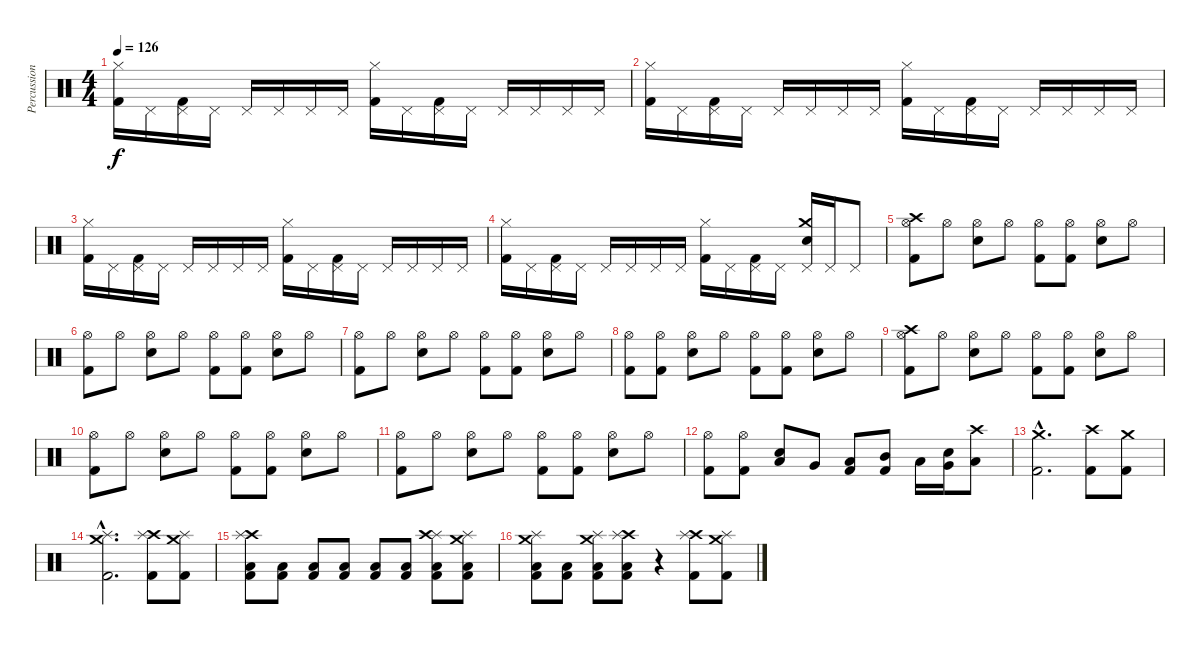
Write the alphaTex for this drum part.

\track ("Percussions" "Percussion") {instrument percussion}
\staff {score}
\articulation defaults
\ts (4 4)
\tempo 126
\clef neutral
\ks c
("Hi-Hat (closed)" "Kick (hit) 2").16{dy f} "Pedal Hi-Hat (hit)".16 ("Pedal Hi-Hat (hit)" "Kick (hit) 2").16 "Pedal Hi-Hat (hit)".16 "Pedal Hi-Hat (hit)".16 "Pedal Hi-Hat (hit)".16 "Pedal Hi-Hat (hit)".16 "Pedal Hi-Hat (hit)".16 ("Hi-Hat (closed)" "Kick (hit) 2").16 "Pedal Hi-Hat (hit)".16 ("Pedal Hi-Hat (hit)" "Kick (hit) 2").16 "Pedal Hi-Hat (hit)".16 "Pedal Hi-Hat (hit)".16 "Pedal Hi-Hat (hit)".16 "Pedal Hi-Hat (hit)".16 "Pedal Hi-Hat (hit)".16 |
("Hi-Hat (closed)" "Kick (hit) 2").16 "Pedal Hi-Hat (hit)".16 ("Pedal Hi-Hat (hit)" "Kick (hit) 2").16 "Pedal Hi-Hat (hit)".16 "Pedal Hi-Hat (hit)".16 "Pedal Hi-Hat (hit)".16 "Pedal Hi-Hat (hit)".16 "Pedal Hi-Hat (hit)".16 ("Hi-Hat (closed)" "Kick (hit) 2").16 "Pedal Hi-Hat (hit)".16 ("Pedal Hi-Hat (hit)" "Kick (hit) 2").16 "Pedal Hi-Hat (hit)".16 "Pedal Hi-Hat (hit)".16 "Pedal Hi-Hat (hit)".16 "Pedal Hi-Hat (hit)".16 "Pedal Hi-Hat (hit)".16 |
("Hi-Hat (closed)" "Kick (hit) 2").16 "Pedal Hi-Hat (hit)".16 ("Pedal Hi-Hat (hit)" "Kick (hit) 2").16 "Pedal Hi-Hat (hit)".16 "Pedal Hi-Hat (hit)".16 "Pedal Hi-Hat (hit)".16 "Pedal Hi-Hat (hit)".16 "Pedal Hi-Hat (hit)".16 ("Hi-Hat (closed)" "Kick (hit) 2").16 "Pedal Hi-Hat (hit)".16 ("Pedal Hi-Hat (hit)" "Kick (hit) 2").16 "Pedal Hi-Hat (hit)".16 "Pedal Hi-Hat (hit)".16 "Pedal Hi-Hat (hit)".16 "Pedal Hi-Hat (hit)".16 "Pedal Hi-Hat (hit)".16 |
("Hi-Hat (closed)" "Kick (hit) 2").16 "Pedal Hi-Hat (hit)".16 ("Pedal Hi-Hat (hit)" "Kick (hit) 2").16 "Pedal Hi-Hat (hit)".16 "Pedal Hi-Hat (hit)".16 "Pedal Hi-Hat (hit)".16 "Pedal Hi-Hat (hit)".16 "Pedal Hi-Hat (hit)".16 ("Hi-Hat (closed)" "Kick (hit) 2").16 "Pedal Hi-Hat (hit)".16 ("Pedal Hi-Hat (hit)" "Kick (hit) 2").16 "Pedal Hi-Hat (hit)".16 ("Pedal Hi-Hat (hit)" "Crash medium (hit)" "Electric Snare (hit)").16 "Pedal Hi-Hat (hit)".16 "Pedal Hi-Hat (hit)".8 |
("Hi-Hat (open)" "Crash high (hit)" "Kick (hit) 2").8 "Hi-Hat (open)".8 ("Hi-Hat (open)" "Electric Snare (hit)").8 "Hi-Hat (open)".8 ("Hi-Hat (open)" "Kick (hit) 2").8 ("Hi-Hat (open)" "Kick (hit) 2").8 ("Hi-Hat (open)" "Electric Snare (hit)").8 "Hi-Hat (open)".8 |
("Hi-Hat (open)" "Kick (hit) 2").8 "Hi-Hat (open)".8 ("Hi-Hat (open)" "Electric Snare (hit)").8 "Hi-Hat (open)".8 ("Hi-Hat (open)" "Kick (hit) 2").8 ("Hi-Hat (open)" "Kick (hit) 2").8 ("Hi-Hat (open)" "Electric Snare (hit)").8 "Hi-Hat (open)".8 |
("Hi-Hat (open)" "Kick (hit) 2").8 "Hi-Hat (open)".8 ("Hi-Hat (open)" "Electric Snare (hit)").8 "Hi-Hat (open)".8 ("Hi-Hat (open)" "Kick (hit) 2").8 ("Hi-Hat (open)" "Kick (hit) 2").8 ("Hi-Hat (open)" "Electric Snare (hit)").8 "Hi-Hat (open)".8 |
("Hi-Hat (open)" "Kick (hit) 2").8 ("Hi-Hat (open)" "Kick (hit) 2").8 ("Hi-Hat (open)" "Electric Snare (hit)").8 "Hi-Hat (open)".8 ("Hi-Hat (open)" "Kick (hit) 2").8 ("Hi-Hat (open)" "Kick (hit) 2").8 ("Hi-Hat (open)" "Electric Snare (hit)").8 "Hi-Hat (open)".8 |
("Hi-Hat (open)" "Crash high (hit)" "Kick (hit) 2").8 "Hi-Hat (open)".8 ("Hi-Hat (open)" "Electric Snare (hit)").8 "Hi-Hat (open)".8 ("Hi-Hat (open)" "Kick (hit) 2").8 ("Hi-Hat (open)" "Kick (hit) 2").8 ("Hi-Hat (open)" "Electric Snare (hit)").8 "Hi-Hat (open)".8 |
("Hi-Hat (open)" "Kick (hit) 2").8 "Hi-Hat (open)".8 ("Hi-Hat (open)" "Electric Snare (hit)").8 "Hi-Hat (open)".8 ("Hi-Hat (open)" "Kick (hit) 2").8 ("Hi-Hat (open)" "Kick (hit) 2").8 ("Hi-Hat (open)" "Electric Snare (hit)").8 "Hi-Hat (open)".8 |
("Hi-Hat (open)" "Kick (hit) 2").8 "Hi-Hat (open)".8 ("Hi-Hat (open)" "Electric Snare (hit)").8 "Hi-Hat (open)".8 ("Hi-Hat (open)" "Kick (hit) 2").8 ("Hi-Hat (open)" "Kick (hit) 2").8 ("Hi-Hat (open)" "Electric Snare (hit)").8 "Hi-Hat (open)".8 |
("Hi-Hat (open)" "Kick (hit) 2").8 ("Hi-Hat (open)" "Kick (hit) 2").8 ("Low Floor Tom (hit)" "Electric Snare (hit)").8 "Very Low Tom (hit)".8 ("Low Tom (hit)" "Kick (hit) 2").8 ("Mid Tom (hit)" "Kick (hit) 2").8 "Low Tom (hit)".16 ("Very Low Tom (hit)" "Electric Snare (hit)").16 ("Crash high (hit)" "Low Floor Tom (hit)").8 |
("Crash medium (hit)"{hac} "Kick (hit) 2"{hac}).2{d} ("Crash high (hit)" "Kick (hit) 2").8 ("Crash medium (hit)" "Kick (hit) 2").8 |
("Crash medium (hit)"{hac} "Splash (hit)"{hac} "Kick (hit) 2"{hac}).2{d} ("Crash high (hit)" "Splash (hit)" "Kick (hit) 2").8 ("Crash medium (hit)" "Splash (hit)" "Kick (hit) 2").8 |
("Crash high (hit)" "Splash (hit)" "Low Floor Tom (hit)" "Kick (hit) 2").8 ("Low Floor Tom (hit)" "Kick (hit) 2").8 ("Low Floor Tom (hit)" "Kick (hit) 2").8 ("Low Floor Tom (hit)" "Kick (hit) 2").8 ("Low Floor Tom (hit)" "Kick (hit) 2").8 ("Low Floor Tom (hit)" "Kick (hit) 2").8 ("Splash (hit)" "Crash high (hit)" "Low Floor Tom (hit)" "Kick (hit) 2").8 ("Crash medium (hit)" "Splash (hit)" "Low Floor Tom (hit)" "Kick (hit) 2").8 |
("Crash medium (hit)" "Splash (hit)" "Low Floor Tom (hit)" "Kick (hit) 2").8 ("Low Floor Tom (hit)" "Kick (hit) 2").8 ("Crash medium (hit)" "Splash (hit)" "Low Floor Tom (hit)" "Kick (hit) 2").8 ("Crash high (hit)" "Splash (hit)" "Low Floor Tom (hit)" "Kick (hit) 2").8 r.4 ("Crash high (hit)" "Splash (hit)" "Kick (hit) 2").8 ("Crash medium (hit)" "Splash (hit)" "Kick (hit) 2").8
